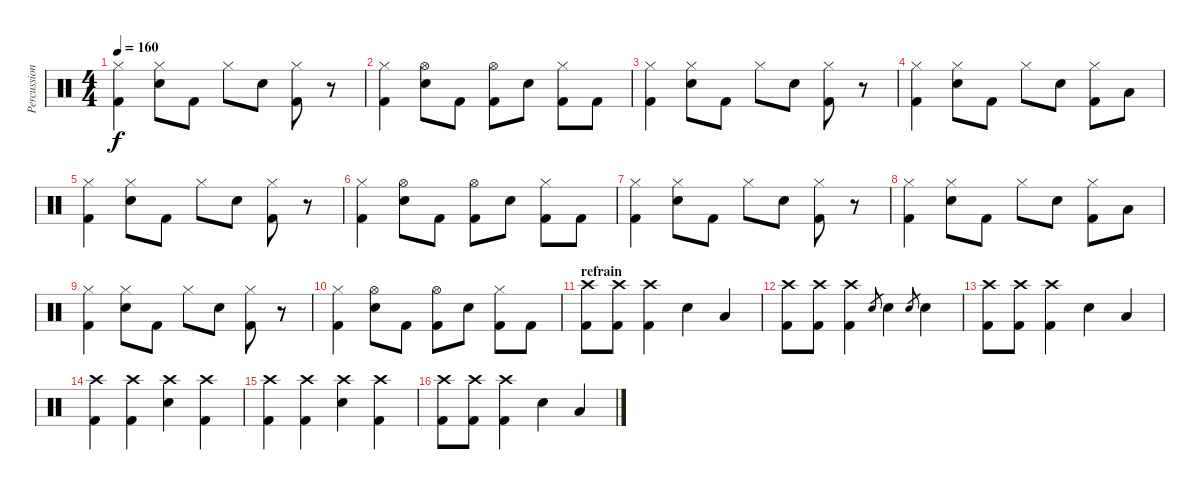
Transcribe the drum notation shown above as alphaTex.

\track ("Percussions" "Percussion") {instrument percussion}
\staff {score}
\articulation defaults
\ts (4 4)
\tempo 160
\clef neutral
\ks c
("Hi-Hat (closed)" "Kick (hit) 2").4{dy f} ("Hi-Hat (closed)" "Snare (hit) 2").8 "Kick (hit) 2".8 "Hi-Hat (closed)".8 "Snare (hit) 2".8 ("Hi-Hat (closed)" "Kick (hit) 2").8 r.8 |
("Hi-Hat (closed)" "Kick (hit) 2").4 ("Hi-Hat (open)" "Snare (hit) 2").8 "Kick (hit) 2".8 ("Hi-Hat (open)" "Kick (hit) 2").8 "Snare (hit) 2".8 ("Hi-Hat (closed)" "Kick (hit) 2").8 "Kick (hit) 2".8 |
("Hi-Hat (closed)" "Kick (hit) 2").4 ("Hi-Hat (closed)" "Snare (hit) 2").8 "Kick (hit) 2".8 "Hi-Hat (closed)".8 "Snare (hit) 2".8 ("Hi-Hat (closed)" "Kick (hit) 2").8 r.8 |
("Hi-Hat (closed)" "Kick (hit) 2").4 ("Hi-Hat (closed)" "Snare (hit) 2").8 "Kick (hit) 2".8 "Hi-Hat (closed)".8 "Snare (hit) 2".8 ("Hi-Hat (closed)" "Kick (hit) 2").8 "Low Tom (hit)".8 |
("Hi-Hat (closed)" "Kick (hit) 2").4 ("Hi-Hat (closed)" "Snare (hit) 2").8 "Kick (hit) 2".8 "Hi-Hat (closed)".8 "Snare (hit) 2".8 ("Hi-Hat (closed)" "Kick (hit) 2").8 r.8 |
("Hi-Hat (closed)" "Kick (hit) 2").4 ("Hi-Hat (open)" "Snare (hit) 2").8 "Kick (hit) 2".8 ("Hi-Hat (open)" "Kick (hit) 2").8 "Snare (hit) 2".8 ("Hi-Hat (closed)" "Kick (hit) 2").8 "Kick (hit) 2".8 |
("Hi-Hat (closed)" "Kick (hit) 2").4 ("Hi-Hat (closed)" "Snare (hit) 2").8 "Kick (hit) 2".8 "Hi-Hat (closed)".8 "Snare (hit) 2".8 ("Hi-Hat (closed)" "Kick (hit) 2").8 r.8 |
("Hi-Hat (closed)" "Kick (hit) 2").4 ("Hi-Hat (closed)" "Snare (hit) 2").8 "Kick (hit) 2".8 "Hi-Hat (closed)".8 "Snare (hit) 2".8 ("Hi-Hat (closed)" "Kick (hit) 2").8 "Low Tom (hit)".8 |
("Hi-Hat (closed)" "Kick (hit) 2").4 ("Hi-Hat (closed)" "Snare (hit) 2").8 "Kick (hit) 2".8 "Hi-Hat (closed)".8 "Snare (hit) 2".8 ("Hi-Hat (closed)" "Kick (hit) 2").8 r.8 |
("Hi-Hat (closed)" "Kick (hit) 2").4 ("Hi-Hat (open)" "Snare (hit) 2").8 "Kick (hit) 2".8 ("Hi-Hat (open)" "Kick (hit) 2").8 "Snare (hit) 2".8 ("Hi-Hat (closed)" "Kick (hit) 2").8 "Kick (hit) 2".8 |
\section ("" "refrain")
("Crash high (hit)" "Kick (hit) 2").8 ("Crash high (hit)" "Kick (hit) 2").8 ("Crash high (hit)" "Kick (hit) 2").4 "Snare (hit) 2".4 "Low Tom (hit)".4 |
("Crash high (hit)" "Kick (hit) 2").8 ("Crash high (hit)" "Kick (hit) 2").8 ("Crash high (hit)" "Kick (hit) 2").4 "Snare (hit) 2".8{gr} "Snare (hit) 2".4 "Snare (hit) 2".8{gr} "Snare (hit) 2".4 |
("Crash high (hit)" "Kick (hit) 2").8 ("Crash high (hit)" "Kick (hit) 2").8 ("Crash high (hit)" "Kick (hit) 2").4 "Snare (hit) 2".4 "Low Tom (hit)".4 |
("Crash high (hit)" "Kick (hit) 2").4 ("Crash high (hit)" "Kick (hit) 2").4 ("Crash high (hit)" "Snare (hit) 2").4 ("Crash high (hit)" "Kick (hit) 2").4 |
("Crash high (hit)" "Kick (hit) 2").4 ("Crash high (hit)" "Kick (hit) 2").4 ("Crash high (hit)" "Snare (hit) 2").4 ("Crash high (hit)" "Kick (hit) 2").4 |
("Crash high (hit)" "Kick (hit) 2").8 ("Crash high (hit)" "Kick (hit) 2").8 ("Crash high (hit)" "Kick (hit) 2").4 "Snare (hit) 2".4 "Low Tom (hit)".4
